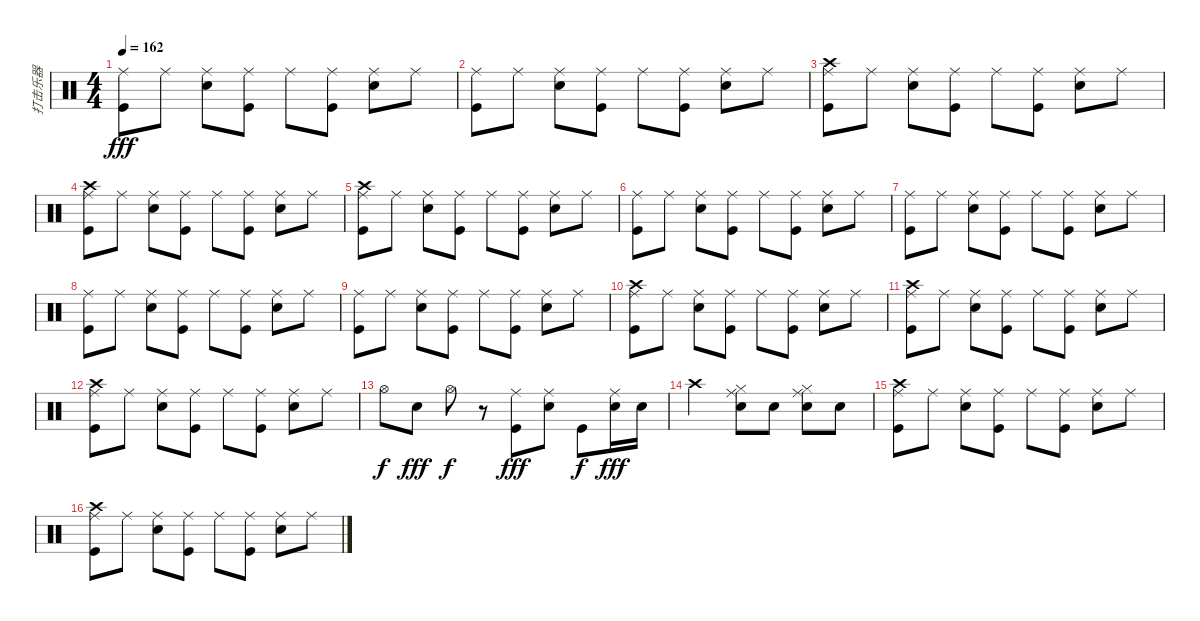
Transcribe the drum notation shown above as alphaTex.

\track ("打击乐器" "打击乐器") {instrument percussion}
\staff {score}
\articulation defaults
\ts (4 4)
\tempo 162
\clef neutral
\ks c
("Ride (middle)" "Kick (hit)").8{dy fff} "Ride (middle)".8 ("Ride (middle)" "Snare (hit) 2").8 ("Kick (hit)" "Ride (middle)").8 "Ride (middle)".8 ("Kick (hit)" "Ride (middle)").8 ("Ride (middle)" "Snare (hit) 2").8 "Ride (middle)".8 |
("Ride (middle)" "Kick (hit)").8 "Ride (middle)".8 ("Ride (middle)" "Snare (hit) 2").8 ("Kick (hit)" "Ride (middle)").8 "Ride (middle)".8 ("Kick (hit)" "Ride (middle)").8 ("Ride (middle)" "Snare (hit) 2").8 "Ride (middle)".8 |
("Ride (middle)" "Kick (hit)" "Crash high (hit)").8 "Ride (middle)".8 ("Ride (middle)" "Snare (hit) 2").8 ("Kick (hit)" "Ride (middle)").8 "Ride (middle)".8 ("Kick (hit)" "Ride (middle)").8 ("Ride (middle)" "Snare (hit) 2").8 "Ride (middle)".8 |
("Ride (middle)" "Kick (hit)" "Crash high (hit)").8 "Ride (middle)".8 ("Ride (middle)" "Snare (hit) 2").8 ("Kick (hit)" "Ride (middle)").8 "Ride (middle)".8 ("Kick (hit)" "Ride (middle)").8 ("Ride (middle)" "Snare (hit) 2").8 "Ride (middle)".8 |
("Ride (middle)" "Kick (hit)" "Crash high (hit)").8 "Ride (middle)".8 ("Ride (middle)" "Snare (hit) 2").8 ("Kick (hit)" "Ride (middle)").8 "Ride (middle)".8 ("Kick (hit)" "Ride (middle)").8 ("Ride (middle)" "Snare (hit) 2").8 "Ride (middle)".8 |
("Ride (middle)" "Kick (hit)").8 "Ride (middle)".8 ("Ride (middle)" "Snare (hit) 2").8 ("Kick (hit)" "Ride (middle)").8 "Ride (middle)".8 ("Kick (hit)" "Ride (middle)").8 ("Ride (middle)" "Snare (hit) 2").8 "Ride (middle)".8 |
("Ride (middle)" "Kick (hit)").8 "Ride (middle)".8 ("Ride (middle)" "Snare (hit) 2").8 ("Kick (hit)" "Ride (middle)").8 "Ride (middle)".8 ("Kick (hit)" "Ride (middle)").8 ("Ride (middle)" "Snare (hit) 2").8 "Ride (middle)".8 |
("Ride (middle)" "Kick (hit)").8 "Ride (middle)".8 ("Ride (middle)" "Snare (hit) 2").8 ("Kick (hit)" "Ride (middle)").8 "Ride (middle)".8 ("Kick (hit)" "Ride (middle)").8 ("Ride (middle)" "Snare (hit) 2").8 "Ride (middle)".8 |
("Ride (middle)" "Kick (hit)").8 "Ride (middle)".8 ("Ride (middle)" "Snare (hit) 2").8 ("Kick (hit)" "Ride (middle)").8 "Ride (middle)".8 ("Kick (hit)" "Ride (middle)").8 ("Ride (middle)" "Snare (hit) 2").8 "Ride (middle)".8 |
("Ride (middle)" "Kick (hit)" "Crash high (hit)").8 "Ride (middle)".8 ("Ride (middle)" "Snare (hit) 2").8 ("Kick (hit)" "Ride (middle)").8 "Ride (middle)".8 ("Kick (hit)" "Ride (middle)").8 ("Ride (middle)" "Snare (hit) 2").8 "Ride (middle)".8 |
("Ride (middle)" "Kick (hit)" "Crash high (hit)").8 "Ride (middle)".8 ("Ride (middle)" "Snare (hit) 2").8 ("Kick (hit)" "Ride (middle)").8 "Ride (middle)".8 ("Kick (hit)" "Ride (middle)").8 ("Ride (middle)" "Snare (hit) 2").8 "Ride (middle)".8 |
("Ride (middle)" "Kick (hit)" "Crash high (hit)").8 "Ride (middle)".8 ("Ride (middle)" "Snare (hit) 2").8 ("Kick (hit)" "Ride (middle)").8 "Ride (middle)".8 ("Kick (hit)" "Ride (middle)").8 ("Ride (middle)" "Snare (hit) 2").8 "Ride (middle)".8 |
"Hi-Hat (open)".8{dy f} "Snare (hit) 2".8{dy fff} "Hi-Hat (open)".8{dy f} r.8 ("Ride (middle)" "Kick (hit)").8{dy fff} ("Ride (middle)" "Snare (hit) 2").8 "Kick (hit)".8{dy f} ("Ride (middle)" "Snare (hit) 2").16{dy fff} "Snare (hit) 2".16 |
"Crash high (hit)".2 ("Snare (hit) 2" "Hi-Hat (closed)" "Ride (middle)").8 "Snare (hit) 2".8 ("Snare (hit) 2" "Hi-Hat (closed)" "Ride (middle)").8 "Snare (hit) 2".8 |
("Ride (middle)" "Kick (hit)" "Crash high (hit)").8 "Ride (middle)".8 ("Ride (middle)" "Snare (hit) 2").8 ("Kick (hit)" "Ride (middle)").8 "Ride (middle)".8 ("Kick (hit)" "Ride (middle)").8 ("Ride (middle)" "Snare (hit) 2").8 "Ride (middle)".8 |
("Ride (middle)" "Kick (hit)" "Crash high (hit)").8 "Ride (middle)".8 ("Ride (middle)" "Snare (hit) 2").8 ("Kick (hit)" "Ride (middle)").8 "Ride (middle)".8 ("Kick (hit)" "Ride (middle)").8 ("Ride (middle)" "Snare (hit) 2").8 "Ride (middle)".8
